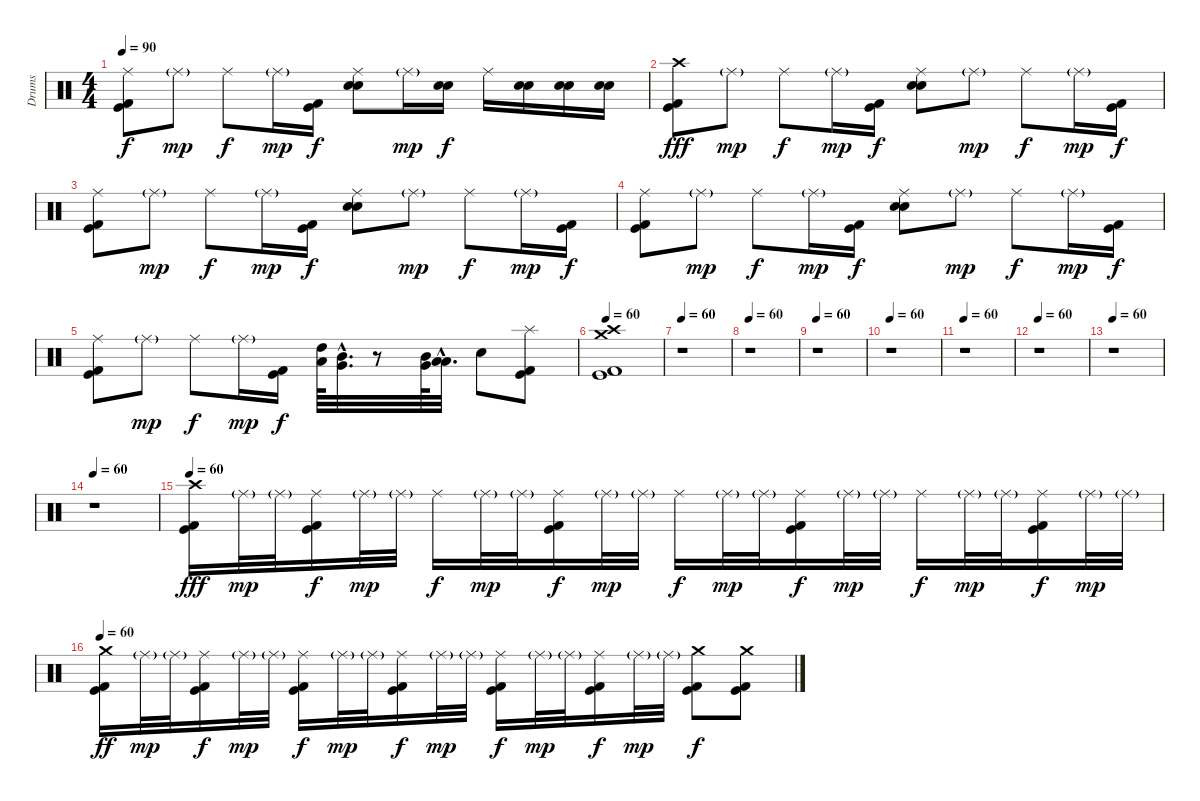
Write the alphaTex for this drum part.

\track ("Drums" "Drums") {instrument percussion}
\staff {score}
\articulation defaults
\ts (4 4)
\tempo 90
\clef neutral
\ks c
("Ride (middle)" "Kick (hit) 2" "Kick (hit)").8{dy f} "Ride (middle)"{g}.8{dy mp} "Ride (middle)".8{dy f} "Ride (middle)"{g}.16{dy mp} ("Kick (hit) 2" "Kick (hit)").16{dy f} ("Ride (middle)" "Electric Snare (hit)" "Snare (hit) 2").8 "Ride (middle)"{g}.16{dy mp} ("Electric Snare (hit)" "Snare (hit) 2").16{dy f} "Ride (middle)".16 ("Electric Snare (hit)" "Snare (hit) 2").16 ("Electric Snare (hit)" "Snare (hit) 2").16 ("Electric Snare (hit)" "Snare (hit) 2").16 |
("Crash high (hit)" "Kick (hit) 2" "Kick (hit)").8{dy fff} "Ride (middle)"{g}.8{dy mp} "Ride (middle)".8{dy f} "Ride (middle)"{g}.16{dy mp} ("Kick (hit) 2" "Kick (hit)").16{dy f} ("Ride (middle)" "Electric Snare (hit)" "Snare (hit) 2").8 "Ride (middle)"{g}.8{dy mp} "Ride (middle)".8{dy f} "Ride (middle)"{g}.16{dy mp} ("Kick (hit) 2" "Kick (hit)").16{dy f} |
("Ride (middle)" "Kick (hit) 2" "Kick (hit)").8 "Ride (middle)"{g}.8{dy mp} "Ride (middle)".8{dy f} "Ride (middle)"{g}.16{dy mp} ("Kick (hit) 2" "Kick (hit)").16{dy f} ("Ride (middle)" "Electric Snare (hit)" "Snare (hit) 2").8 "Ride (middle)"{g}.8{dy mp} "Ride (middle)".8{dy f} "Ride (middle)"{g}.16{dy mp} ("Kick (hit) 2" "Kick (hit)").16{dy f} |
("Ride (middle)" "Kick (hit) 2" "Kick (hit)").8 "Ride (middle)"{g}.8{dy mp} "Ride (middle)".8{dy f} "Ride (middle)"{g}.16{dy mp} ("Kick (hit) 2" "Kick (hit)").16{dy f} ("Ride (middle)" "Electric Snare (hit)" "Snare (hit) 2").8 "Ride (middle)"{g}.8{dy mp} "Ride (middle)".8{dy f} "Ride (middle)"{g}.16{dy mp} ("Kick (hit) 2" "Kick (hit)").16{dy f} |
("Ride (middle)" "Kick (hit) 2" "Kick (hit)").8 "Ride (middle)"{g}.8{dy mp} "Ride (middle)".8{dy f} "Ride (middle)"{g}.16{dy mp} ("Kick (hit) 2" "Kick (hit)").16{dy f} ("High Tom (hit)" "Low Tom (hit)").64 ("Mid Tom (hit)"{hac} "Very Low Tom (hit)"{hac}).32{d} r.8 ("Mid Tom (hit)" "Very Low Tom (hit)").64 ("Low Tom (hit)"{hac} "Low Floor Tom (hit)"{hac}).32{d} "Snare (hit)"{x}.8 ("Splash (hit)" "Kick (hit) 2" "Kick (hit)").8 |
\tempo 60
("Crash high (hit)" "Crash medium (hit)" "Kick (hit) 2" "Kick (hit)").1 |
\tempo 60
r.1 |
\tempo 60
r.1 |
\tempo 60
r.1 |
\tempo 60
r.1 |
\tempo 60
r.1 |
\tempo 60
r.1 |
\tempo 60
r.1 |
\tempo 60
r.1 |
\tempo 60
("Crash high (hit)" "Kick (hit) 2" "Kick (hit)").16{dy fff} "Ride (middle)"{g}.32{dy mp} "Ride (middle)"{g}.32 ("Ride (middle)" "Kick (hit) 2" "Kick (hit)").16{dy f} "Ride (middle)"{g}.32{dy mp} "Ride (middle)"{g}.32 "Ride (middle)".16{dy f} "Ride (middle)"{g}.32{dy mp} "Ride (middle)"{g}.32 ("Ride (middle)" "Kick (hit) 2" "Kick (hit)").16{dy f} "Ride (middle)"{g}.32{dy mp} "Ride (middle)"{g}.32 "Ride (middle)".16{dy f} "Ride (middle)"{g}.32{dy mp} "Ride (middle)"{g}.32 ("Ride (middle)" "Kick (hit) 2" "Kick (hit)").16{dy f} "Ride (middle)"{g}.32{dy mp} "Ride (middle)"{g}.32 "Ride (middle)".16{dy f} "Ride (middle)"{g}.32{dy mp} "Ride (middle)"{g}.32 ("Ride (middle)" "Kick (hit) 2" "Kick (hit)").16{dy f} "Ride (middle)"{g}.32{dy mp} "Ride (middle)"{g}.32 |
\tempo 60
("Crash medium (hit)" "Kick (hit) 2" "Kick (hit)").16{dy ff} "Ride (middle)"{g}.32{dy mp} "Ride (middle)"{g}.32 ("Ride (middle)" "Kick (hit) 2" "Kick (hit)").16{dy f} "Ride (middle)"{g}.32{dy mp} "Ride (middle)"{g}.32 ("Ride (middle)" "Kick (hit) 2" "Kick (hit)").16{dy f} "Ride (middle)"{g}.32{dy mp} "Ride (middle)"{g}.32 ("Ride (middle)" "Kick (hit) 2" "Kick (hit)").16{dy f} "Ride (middle)"{g}.32{dy mp} "Ride (middle)"{g}.32 ("Ride (middle)" "Kick (hit) 2" "Kick (hit)").16{dy f} "Ride (middle)"{g}.32{dy mp} "Ride (middle)"{g}.32 ("Ride (middle)" "Kick (hit) 2" "Kick (hit)").16{dy f} "Ride (middle)"{g}.32{dy mp} "Ride (middle)"{g}.32 ("Crash medium (hit)" "Kick (hit) 2" "Kick (hit)").8{dy f} ("Crash medium (hit)" "Kick (hit) 2" "Kick (hit)").8
